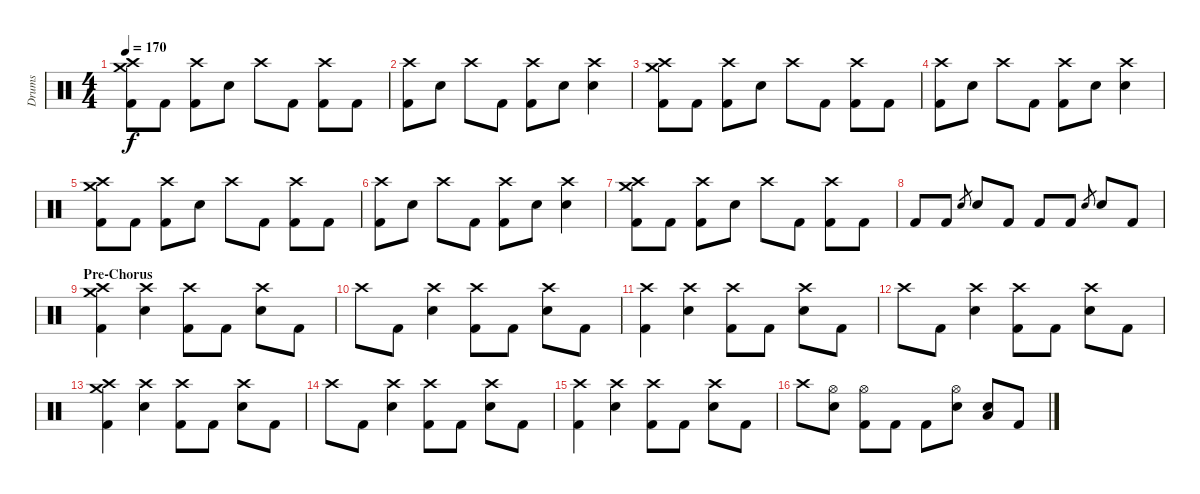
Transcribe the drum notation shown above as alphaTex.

\track ("Drums" "Drums") {instrument percussion}
\staff {score}
\articulation defaults
\ts (4 4)
\tempo 170
\clef neutral
\ks c
("Crash medium (hit)" "Crash high (hit)" "Kick (hit) 2").8{dy f} "Kick (hit) 2".8 ("Crash high (hit)" "Kick (hit) 2").8 "Snare (hit) 2".8 "Crash high (hit)".8 "Kick (hit) 2".8 ("Crash high (hit)" "Kick (hit) 2").8 "Kick (hit) 2".8 |
("Crash high (hit)" "Kick (hit) 2").8 "Snare (hit) 2".8 "Crash high (hit)".8 "Kick (hit) 2".8 ("Crash high (hit)" "Kick (hit) 2").8 "Snare (hit) 2".8 ("Crash high (hit)" "Snare (hit) 2").4 |
("Crash medium (hit)" "Crash high (hit)" "Kick (hit) 2").8 "Kick (hit) 2".8 ("Crash high (hit)" "Kick (hit) 2").8 "Snare (hit) 2".8 "Crash high (hit)".8 "Kick (hit) 2".8 ("Crash high (hit)" "Kick (hit) 2").8 "Kick (hit) 2".8 |
("Crash high (hit)" "Kick (hit) 2").8 "Snare (hit) 2".8 "Crash high (hit)".8 "Kick (hit) 2".8 ("Crash high (hit)" "Kick (hit) 2").8 "Snare (hit) 2".8 ("Crash high (hit)" "Snare (hit) 2").4 |
("Crash medium (hit)" "Crash high (hit)" "Kick (hit) 2").8 "Kick (hit) 2".8 ("Crash high (hit)" "Kick (hit) 2").8 "Snare (hit) 2".8 "Crash high (hit)".8 "Kick (hit) 2".8 ("Crash high (hit)" "Kick (hit) 2").8 "Kick (hit) 2".8 |
("Crash high (hit)" "Kick (hit) 2").8 "Snare (hit) 2".8 "Crash high (hit)".8 "Kick (hit) 2".8 ("Crash high (hit)" "Kick (hit) 2").8 "Snare (hit) 2".8 ("Crash high (hit)" "Snare (hit) 2").4 |
("Crash medium (hit)" "Crash high (hit)" "Kick (hit) 2").8 "Kick (hit) 2".8 ("Crash high (hit)" "Kick (hit) 2").8 "Snare (hit) 2".8 "Crash high (hit)".8 "Kick (hit) 2".8 ("Crash high (hit)" "Kick (hit) 2").8 "Kick (hit) 2".8 |
"Kick (hit) 2".8 "Kick (hit) 2".8 "Snare (hit) 2".8{gr} "Snare (hit) 2".8 "Kick (hit) 2".8 "Kick (hit) 2".8 "Kick (hit) 2".8 "Snare (hit) 2".8{gr} "Snare (hit) 2".8 "Kick (hit) 2".8 |
\section ("" "Pre-Chorus")
("Crash medium (hit)" "Crash high (hit)" "Kick (hit) 2").4 ("Crash high (hit)" "Snare (hit) 2").4 ("Crash high (hit)" "Kick (hit) 2").8 "Kick (hit) 2".8 ("Crash high (hit)" "Snare (hit) 2").8 "Kick (hit) 2".8 |
"Crash high (hit)".8 "Kick (hit) 2".8 ("Crash high (hit)" "Snare (hit) 2").4 ("Crash high (hit)" "Kick (hit) 2").8 "Kick (hit) 2".8 ("Crash high (hit)" "Snare (hit) 2").8 "Kick (hit) 2".8 |
("Crash high (hit)" "Kick (hit) 2").4 ("Crash high (hit)" "Snare (hit) 2").4 ("Crash high (hit)" "Kick (hit) 2").8 "Kick (hit) 2".8 ("Crash high (hit)" "Snare (hit) 2").8 "Kick (hit) 2".8 |
"Crash high (hit)".8 "Kick (hit) 2".8 ("Crash high (hit)" "Snare (hit) 2").4 ("Crash high (hit)" "Kick (hit) 2").8 "Kick (hit) 2".8 ("Crash high (hit)" "Snare (hit) 2").8 "Kick (hit) 2".8 |
("Crash medium (hit)" "Crash high (hit)" "Kick (hit) 2").4 ("Crash high (hit)" "Snare (hit) 2").4 ("Crash high (hit)" "Kick (hit) 2").8 "Kick (hit) 2".8 ("Crash high (hit)" "Snare (hit) 2").8 "Kick (hit) 2".8 |
"Crash high (hit)".8 "Kick (hit) 2".8 ("Crash high (hit)" "Snare (hit) 2").4 ("Crash high (hit)" "Kick (hit) 2").8 "Kick (hit) 2".8 ("Crash high (hit)" "Snare (hit) 2").8 "Kick (hit) 2".8 |
("Crash high (hit)" "Kick (hit) 2").4 ("Crash high (hit)" "Snare (hit) 2").4 ("Crash high (hit)" "Kick (hit) 2").8 "Kick (hit) 2".8 ("Crash high (hit)" "Snare (hit) 2").8 "Kick (hit) 2".8 |
"Crash high (hit)".8 ("Hi-Hat (open)" "Snare (hit) 2").8 ("Hi-Hat (open)" "Kick (hit) 2").8 "Kick (hit) 2".8 "Kick (hit) 2".8 ("Hi-Hat (open)" "Snare (hit) 2").8 ("Low Floor Tom (hit)" "Snare (hit) 2").8 "Kick (hit) 2".8
